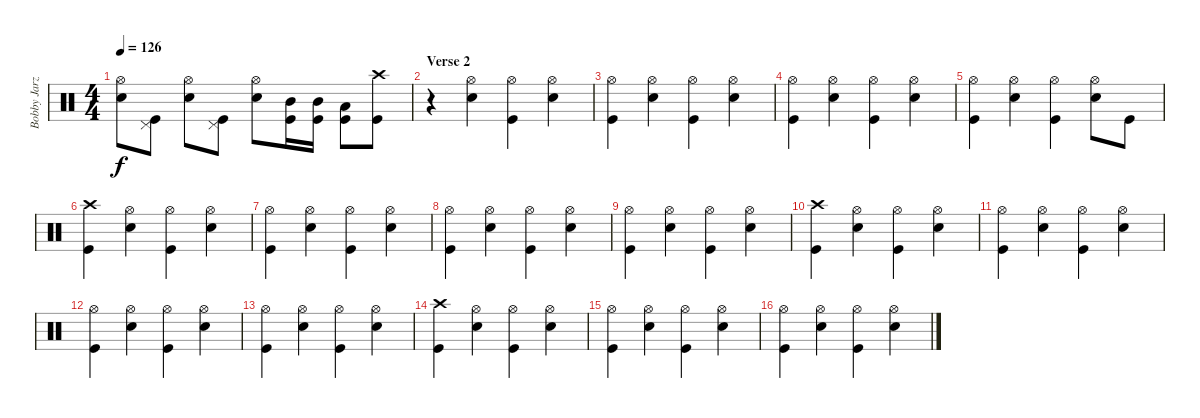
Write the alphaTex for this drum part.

\track ("Bobby Jarzombek" "Bobby Jarz") {instrument percussion}
\staff {score}
\articulation defaults
\ts (4 4)
\tempo 126
\clef neutral
\ks c
("Hi-Hat (open)" "Electric Snare (hit)").8{dy f} ("Pedal Hi-Hat (hit)" "Kick (hit)").8 ("Hi-Hat (open)" "Electric Snare (hit)").8 ("Pedal Hi-Hat (hit)" "Kick (hit)").8 ("Hi-Hat (open)" "Electric Snare (hit)").8 ("Mid Tom (hit)" "Kick (hit)").16 ("Mid Tom (hit)" "Kick (hit)").16 ("Low Tom (hit)" "Kick (hit)").8 ("Crash high (hit)" "Kick (hit)").8 |
\section ("" "Verse 2")
r.4 ("Hi-Hat (open)" "Electric Snare (hit)").4 ("Hi-Hat (open)" "Kick (hit)").4 ("Hi-Hat (open)" "Electric Snare (hit)").4 |
("Hi-Hat (open)" "Kick (hit)").4 ("Hi-Hat (open)" "Electric Snare (hit)").4 ("Hi-Hat (open)" "Kick (hit)").4 ("Hi-Hat (open)" "Electric Snare (hit)").4 |
("Hi-Hat (open)" "Kick (hit)").4 ("Hi-Hat (open)" "Electric Snare (hit)").4 ("Hi-Hat (open)" "Kick (hit)").4 ("Hi-Hat (open)" "Electric Snare (hit)").4 |
("Hi-Hat (open)" "Kick (hit)").4 ("Hi-Hat (open)" "Electric Snare (hit)").4 ("Hi-Hat (open)" "Kick (hit)").4 ("Hi-Hat (open)" "Electric Snare (hit)").8 "Kick (hit)".8 |
("Crash high (hit)" "Kick (hit)").4 ("Hi-Hat (open)" "Electric Snare (hit)").4 ("Hi-Hat (open)" "Kick (hit)").4 ("Hi-Hat (open)" "Electric Snare (hit)").4 |
("Hi-Hat (open)" "Kick (hit)").4 ("Hi-Hat (open)" "Electric Snare (hit)").4 ("Hi-Hat (open)" "Kick (hit)").4 ("Hi-Hat (open)" "Electric Snare (hit)").4 |
("Hi-Hat (open)" "Kick (hit)").4 ("Hi-Hat (open)" "Electric Snare (hit)").4 ("Hi-Hat (open)" "Kick (hit)").4 ("Hi-Hat (open)" "Electric Snare (hit)").4 |
("Hi-Hat (open)" "Kick (hit)").4 ("Hi-Hat (open)" "Electric Snare (hit)").4 ("Hi-Hat (open)" "Kick (hit)").4 ("Hi-Hat (open)" "Electric Snare (hit)").4 |
("Crash high (hit)" "Kick (hit)").4 ("Hi-Hat (open)" "Electric Snare (hit)").4 ("Hi-Hat (open)" "Kick (hit)").4 ("Hi-Hat (open)" "Electric Snare (hit)").4 |
("Hi-Hat (open)" "Kick (hit)").4 ("Hi-Hat (open)" "Electric Snare (hit)").4 ("Hi-Hat (open)" "Kick (hit)").4 ("Hi-Hat (open)" "Electric Snare (hit)").4 |
("Hi-Hat (open)" "Kick (hit)").4 ("Hi-Hat (open)" "Electric Snare (hit)").4 ("Hi-Hat (open)" "Kick (hit)").4 ("Hi-Hat (open)" "Electric Snare (hit)").4 |
("Hi-Hat (open)" "Kick (hit)").4 ("Hi-Hat (open)" "Electric Snare (hit)").4 ("Hi-Hat (open)" "Kick (hit)").4 ("Hi-Hat (open)" "Electric Snare (hit)").4 |
("Crash high (hit)" "Kick (hit)").4 ("Hi-Hat (open)" "Electric Snare (hit)").4 ("Hi-Hat (open)" "Kick (hit)").4 ("Hi-Hat (open)" "Electric Snare (hit)").4 |
("Hi-Hat (open)" "Kick (hit)").4 ("Hi-Hat (open)" "Electric Snare (hit)").4 ("Hi-Hat (open)" "Kick (hit)").4 ("Hi-Hat (open)" "Electric Snare (hit)").4 |
("Hi-Hat (open)" "Kick (hit)").4 ("Hi-Hat (open)" "Electric Snare (hit)").4 ("Hi-Hat (open)" "Kick (hit)").4 ("Hi-Hat (open)" "Electric Snare (hit)").4
